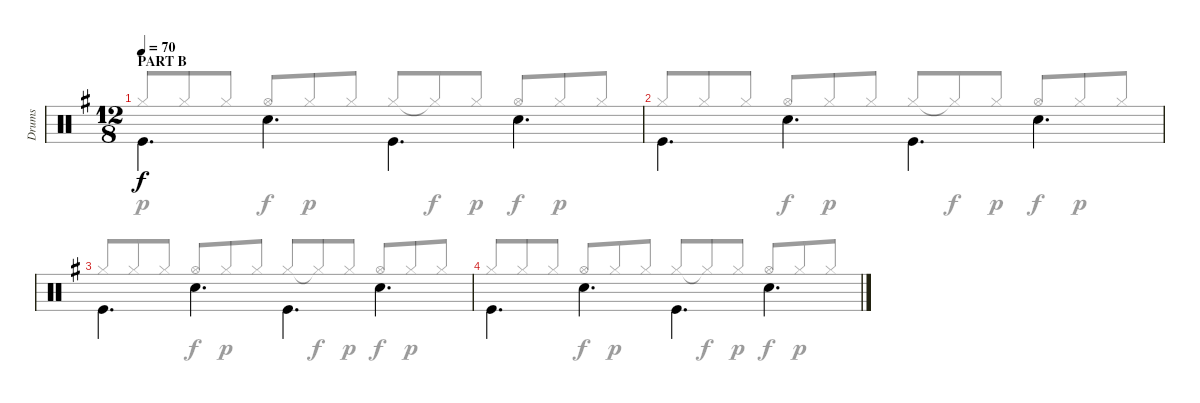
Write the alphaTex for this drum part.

\track ("Drums" "Drums") {instrument percussion}
\staff {score}
\articulation defaults
\voice
\ts (12 8)
\section ("" "PART B")
\tempo 70
\clef neutral
\ks eminor "Kick (hit)".4{d dy f beam Down} "Snare (hit) 2".4{d beam Down} "Kick (hit)".4{d beam Down} "Snare (hit) 2".4{d beam Down}
|
"Kick (hit)".4{d beam Down} "Snare (hit) 2".4{d beam Down} "Kick (hit)".4{d beam Down} "Snare (hit) 2".4{d beam Down} |
"Kick (hit)".4{d beam Down} "Snare (hit) 2".4{d beam Down} "Kick (hit)".4{d beam Down} "Snare (hit) 2".4{d beam Down} |
"Kick (hit)".4{d beam Down} "Snare (hit) 2".4{d beam Down} "Kick (hit)".4{d beam Down} "Snare (hit) 2".4{d beam Down}
\voice
\clef neutral
\ottava regular
\simile none
\ks eminor "Hi-Hat (closed)".8{dy p beam Up} "Hi-Hat (closed)".8{beam Up} "Hi-Hat (closed)".8{beam Up} "Hi-Hat (open)".8{dy f beam Up} "Hi-Hat (closed)".8{dy p beam Up} "Hi-Hat (closed)".8{beam Up} "Hi-Hat (closed)".8{beam Up} "Hi-Hat (closed)"{t}.8{dy f beam Up} "Hi-Hat (closed)".8{dy p beam Up} "Hi-Hat (open)".8{dy f beam Up} "Hi-Hat (closed)".8{dy p beam Up} "Hi-Hat (closed)".8{beam Up}
|
"Hi-Hat (closed)".8{beam Up} "Hi-Hat (closed)".8{beam Up} "Hi-Hat (closed)".8{beam Up} "Hi-Hat (open)".8{dy f beam Up} "Hi-Hat (closed)".8{dy p beam Up} "Hi-Hat (closed)".8{beam Up} "Hi-Hat (closed)".8{beam Up} "Hi-Hat (closed)"{t}.8{dy f beam Up} "Hi-Hat (closed)".8{dy p beam Up} "Hi-Hat (open)".8{dy f beam Up} "Hi-Hat (closed)".8{dy p beam Up} "Hi-Hat (closed)".8{beam Up} |
"Hi-Hat (closed)".8{beam Up} "Hi-Hat (closed)".8{beam Up} "Hi-Hat (closed)".8{beam Up} "Hi-Hat (open)".8{dy f beam Up} "Hi-Hat (closed)".8{dy p beam Up} "Hi-Hat (closed)".8{beam Up} "Hi-Hat (closed)".8{beam Up} "Hi-Hat (closed)"{t}.8{dy f beam Up} "Hi-Hat (closed)".8{dy p beam Up} "Hi-Hat (open)".8{dy f beam Up} "Hi-Hat (closed)".8{dy p beam Up} "Hi-Hat (closed)".8{beam Up} |
"Hi-Hat (closed)".8{beam Up} "Hi-Hat (closed)".8{beam Up} "Hi-Hat (closed)".8{beam Up} "Hi-Hat (open)".8{dy f beam Up} "Hi-Hat (closed)".8{dy p beam Up} "Hi-Hat (closed)".8{beam Up} "Hi-Hat (closed)".8{beam Up} "Hi-Hat (closed)"{t}.8{dy f beam Up} "Hi-Hat (closed)".8{dy p beam Up} "Hi-Hat (open)".8{dy f beam Up} "Hi-Hat (closed)".8{dy p beam Up} "Hi-Hat (closed)".8{beam Up}
